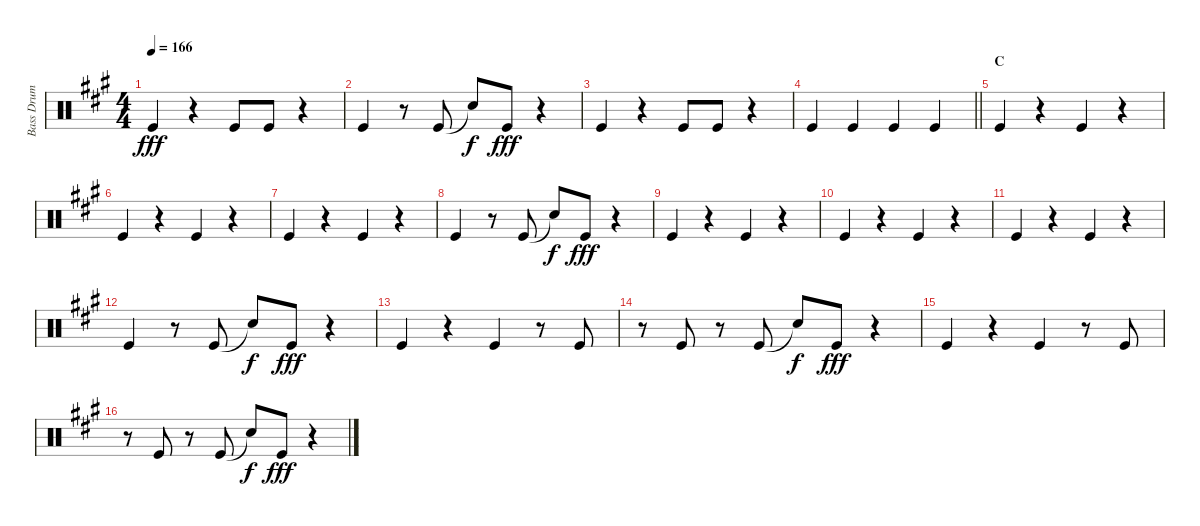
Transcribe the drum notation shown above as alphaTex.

\track ("Bass Drum" "Bass Drum") {instrument percussion}
\staff {score}
\articulation defaults
\ts (4 4)
\tempo 166
\clef neutral
\ks a "Kick (hit)".4{dy fff}
r.4 "Kick (hit)".8 "Kick (hit)".8 r.4 |
"Kick (hit)".4 r.8 "Kick (hit)".8 "Snare (hit)"{t}.8{dy f} "Kick (hit)".8{dy fff} r.4 |
"Kick (hit)".4 r.4 "Kick (hit)".8 "Kick (hit)".8 r.4 |
\barLineRight lightlight "Kick (hit)".4 "Kick (hit)".4 "Kick (hit)".4 "Kick (hit)".4
|
\section ("" "C")
"Kick (hit)".4 r.4 "Kick (hit)".4 r.4 |
"Kick (hit)".4 r.4 "Kick (hit)".4 r.4 |
"Kick (hit)".4 r.4 "Kick (hit)".4 r.4 |
"Kick (hit)".4 r.8 "Kick (hit)".8 "Snare (hit)"{t}.8{dy f} "Kick (hit)".8{dy fff} r.4 |
"Kick (hit)".4 r.4 "Kick (hit)".4 r.4 |
"Kick (hit)".4 r.4 "Kick (hit)".4 r.4 |
"Kick (hit)".4 r.4 "Kick (hit)".4 r.4 |
"Kick (hit)".4 r.8 "Kick (hit)".8 "Snare (hit)"{t}.8{dy f} "Kick (hit)".8{dy fff} r.4 |
"Kick (hit)".4 r.4 "Kick (hit)".4 r.8 "Kick (hit)".8 |
r.8 "Kick (hit)".8 r.8 "Kick (hit)".8 "Snare (hit)"{t}.8{dy f} "Kick (hit)".8{dy fff} r.4 |
"Kick (hit)".4 r.4 "Kick (hit)".4 r.8 "Kick (hit)".8 |
r.8 "Kick (hit)".8 r.8 "Kick (hit)".8 "Snare (hit)"{t}.8{dy f} "Kick (hit)".8{dy fff} r.4
